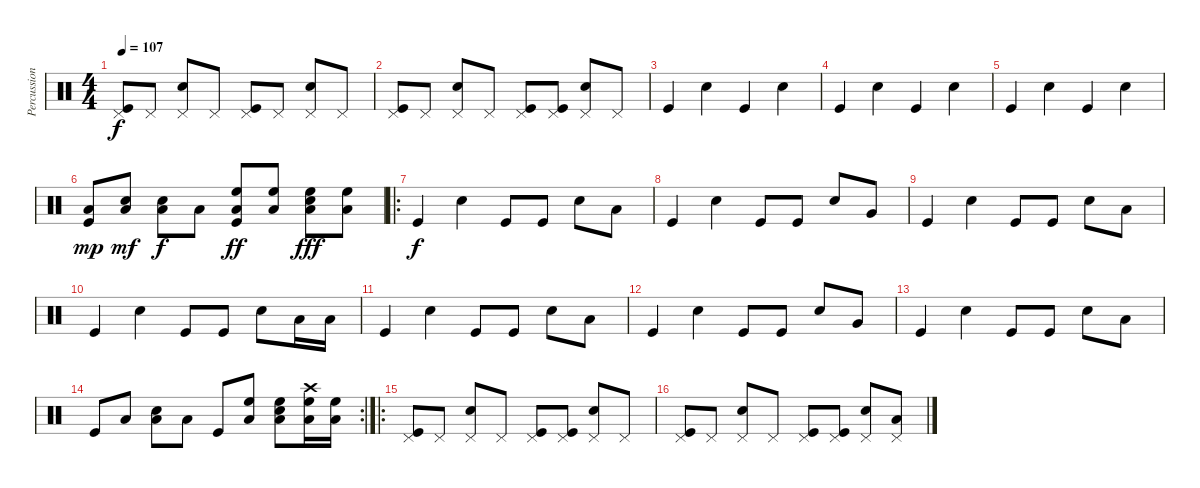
\track ("Percussion" "Percussion") {instrument percussion}
\staff {score}
\articulation defaults
\ts (4 4)
\tempo 107
\clef neutral
\ks c
("Pedal Hi-Hat (hit)" "Kick (hit)").8{dy f} "Pedal Hi-Hat (hit)".8 ("Pedal Hi-Hat (hit)" "Electric Snare (hit)").8 "Pedal Hi-Hat (hit)".8 ("Pedal Hi-Hat (hit)" "Kick (hit)").8 "Pedal Hi-Hat (hit)".8 ("Pedal Hi-Hat (hit)" "Electric Snare (hit)").8 "Pedal Hi-Hat (hit)".8 |
("Pedal Hi-Hat (hit)" "Kick (hit)").8 "Pedal Hi-Hat (hit)".8 ("Pedal Hi-Hat (hit)" "Electric Snare (hit)").8 "Pedal Hi-Hat (hit)".8 ("Pedal Hi-Hat (hit)" "Kick (hit)").8 ("Pedal Hi-Hat (hit)" "Kick (hit)").8 ("Pedal Hi-Hat (hit)" "Electric Snare (hit)").8 "Pedal Hi-Hat (hit)".8 |
"Kick (hit)".4 "Electric Snare (hit)".4 "Kick (hit)".4 "Electric Snare (hit)".4 |
"Kick (hit)".4 "Electric Snare (hit)".4 "Kick (hit)".4 "Electric Snare (hit)".4 |
"Kick (hit)".4 "Electric Snare (hit)".4 "Kick (hit)".4 "Electric Snare (hit)".4 |
("Kick (hit)" "Low Tom (hit)").8{dy mp} ("Electric Snare (hit)" "Low Tom (hit)").8{dy mf} ("Electric Snare (hit)" "Low Tom (hit)").8{dy f} "Low Tom (hit)".8 ("High Floor Tom (hit)" "Kick (hit)" "Low Tom (hit)").8{dy ff} ("High Floor Tom (hit)" "Low Tom (hit)").8 ("High Floor Tom (hit)" "Electric Snare (hit)" "Low Tom (hit)").8{dy fff} ("High Floor Tom (hit)" "Low Tom (hit)").8 |
\ro "Kick (hit)".4{dy f} "Electric Snare (hit)".4 "Kick (hit)".8 "Kick (hit)".8 "Electric Snare (hit)".8 "Low Tom (hit)".8
|
"Kick (hit)".4 "Electric Snare (hit)".4 "Kick (hit)".8 "Kick (hit)".8 "Electric Snare (hit)".8 "Very Low Tom (hit)".8 |
"Kick (hit)".4 "Electric Snare (hit)".4 "Kick (hit)".8 "Kick (hit)".8 "Electric Snare (hit)".8 "Low Tom (hit)".8 |
"Kick (hit)".4 "Electric Snare (hit)".4 "Kick (hit)".8 "Kick (hit)".8 "Electric Snare (hit)".8 "Low Tom (hit)".16 "Low Tom (hit)".16 |
"Kick (hit)".4 "Electric Snare (hit)".4 "Kick (hit)".8 "Kick (hit)".8 "Electric Snare (hit)".8 "Low Tom (hit)".8 |
"Kick (hit)".4 "Electric Snare (hit)".4 "Kick (hit)".8 "Kick (hit)".8 "Electric Snare (hit)".8 "Very Low Tom (hit)".8 |
"Kick (hit)".4 "Electric Snare (hit)".4 "Kick (hit)".8 "Kick (hit)".8 "Electric Snare (hit)".8 "Low Tom (hit)".8 |
\rc 2 "Kick (hit)".8 "Low Tom (hit)".8
("Low Tom (hit)" "Electric Snare (hit)").8 "Low Tom (hit)".8 "Kick (hit)".8 ("High Floor Tom (hit)" "Low Tom (hit)").8 ("High Floor Tom (hit)" "Low Tom (hit)" "Electric Snare (hit)").8 ("High Floor Tom (hit)" "Crash high (hit)" "Low Tom (hit)").16 ("High Floor Tom (hit)" "Low Tom (hit)").16 |
\ro
("Pedal Hi-Hat (hit)" "Kick (hit)").8 "Pedal Hi-Hat (hit)".8 ("Pedal Hi-Hat (hit)" "Electric Snare (hit)").8 "Pedal Hi-Hat (hit)".8 ("Pedal Hi-Hat (hit)" "Kick (hit)").8 ("Pedal Hi-Hat (hit)" "Kick (hit)").8 ("Pedal Hi-Hat (hit)" "Electric Snare (hit)").8 "Pedal Hi-Hat (hit)".8 |
("Pedal Hi-Hat (hit)" "Kick (hit)").8 "Pedal Hi-Hat (hit)".8 ("Pedal Hi-Hat (hit)" "Electric Snare (hit)").8 "Pedal Hi-Hat (hit)".8 ("Pedal Hi-Hat (hit)" "Kick (hit)").8 ("Pedal Hi-Hat (hit)" "Kick (hit)").8 ("Pedal Hi-Hat (hit)" "Electric Snare (hit)").8 ("Low Tom (hit)" "Pedal Hi-Hat (hit)").8
